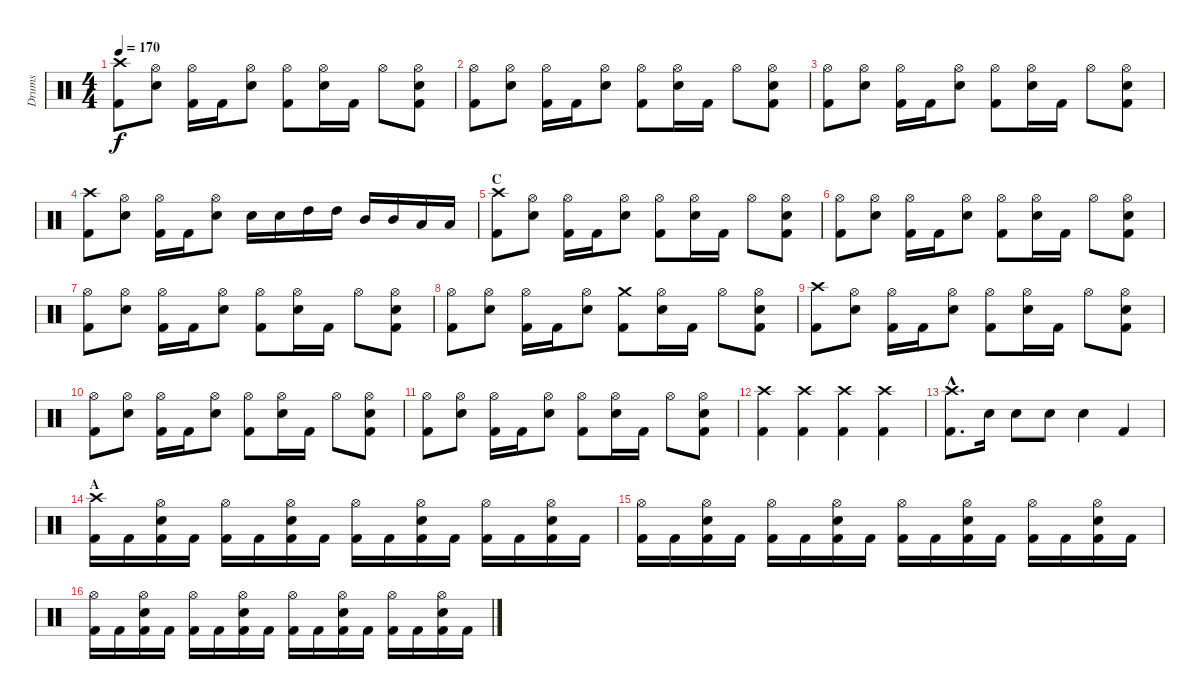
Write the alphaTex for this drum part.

\track ("Drums" "Drums") {instrument percussion}
\staff {score}
\articulation defaults
\ts (4 4)
\tempo 170
\clef neutral
\ks c
("Crash high (hit)" "Kick (hit) 2").8{dy f} ("Hi-Hat (open)" "Electric Snare (hit)").8 ("Hi-Hat (open)" "Kick (hit) 2").16 "Kick (hit) 2".16 ("Hi-Hat (open)" "Electric Snare (hit)").8 ("Hi-Hat (open)" "Kick (hit) 2").8 ("Hi-Hat (open)" "Electric Snare (hit)").16 "Kick (hit) 2".16 "Hi-Hat (open)".8 ("Hi-Hat (open)" "Electric Snare (hit)" "Kick (hit) 2").8 |
("Hi-Hat (open)" "Kick (hit) 2").8 ("Hi-Hat (open)" "Electric Snare (hit)").8 ("Hi-Hat (open)" "Kick (hit) 2").16 "Kick (hit) 2".16 ("Hi-Hat (open)" "Electric Snare (hit)").8 ("Hi-Hat (open)" "Kick (hit) 2").8 ("Hi-Hat (open)" "Electric Snare (hit)").16 "Kick (hit) 2".16 "Hi-Hat (open)".8 ("Hi-Hat (open)" "Electric Snare (hit)" "Kick (hit) 2").8 |
("Hi-Hat (open)" "Kick (hit) 2").8 ("Hi-Hat (open)" "Electric Snare (hit)").8 ("Hi-Hat (open)" "Kick (hit) 2").16 "Kick (hit) 2".16 ("Hi-Hat (open)" "Electric Snare (hit)").8 ("Hi-Hat (open)" "Kick (hit) 2").8 ("Hi-Hat (open)" "Electric Snare (hit)").16 "Kick (hit) 2".16 "Hi-Hat (open)".8 ("Hi-Hat (open)" "Electric Snare (hit)" "Kick (hit) 2").8 |
("Crash high (hit)" "Kick (hit) 2").8 ("Hi-Hat (open)" "Electric Snare (hit)").8 ("Hi-Hat (open)" "Kick (hit) 2").16 "Kick (hit) 2".16 ("Hi-Hat (open)" "Electric Snare (hit)").8 "Electric Snare (hit)".16 "Electric Snare (hit)".16 "High Tom (hit)".16 "High Tom (hit)".16 "Mid Tom (hit)".16 "Mid Tom (hit)".16 "Low Tom (hit)".16 "Low Tom (hit)".16 |
\section ("" "C")
("Crash high (hit)" "Kick (hit) 2").8 ("Hi-Hat (open)" "Electric Snare (hit)").8 ("Hi-Hat (open)" "Kick (hit) 2").16 "Kick (hit) 2".16 ("Hi-Hat (open)" "Electric Snare (hit)").8 ("Hi-Hat (open)" "Kick (hit) 2").8 ("Hi-Hat (open)" "Electric Snare (hit)").16 "Kick (hit) 2".16 "Hi-Hat (open)".8 ("Hi-Hat (open)" "Electric Snare (hit)" "Kick (hit) 2").8 |
("Hi-Hat (open)" "Kick (hit) 2").8 ("Hi-Hat (open)" "Electric Snare (hit)").8 ("Hi-Hat (open)" "Kick (hit) 2").16 "Kick (hit) 2".16 ("Hi-Hat (open)" "Electric Snare (hit)").8 ("Hi-Hat (open)" "Kick (hit) 2").8 ("Hi-Hat (open)" "Electric Snare (hit)").16 "Kick (hit) 2".16 "Hi-Hat (open)".8 ("Hi-Hat (open)" "Electric Snare (hit)" "Kick (hit) 2").8 |
("Hi-Hat (open)" "Kick (hit) 2").8 ("Hi-Hat (open)" "Electric Snare (hit)").8 ("Hi-Hat (open)" "Kick (hit) 2").16 "Kick (hit) 2".16 ("Hi-Hat (open)" "Electric Snare (hit)").8 ("Hi-Hat (open)" "Kick (hit) 2").8 ("Hi-Hat (open)" "Electric Snare (hit)").16 "Kick (hit) 2".16 "Hi-Hat (open)".8 ("Hi-Hat (open)" "Electric Snare (hit)" "Kick (hit) 2").8 |
("Hi-Hat (open)" "Kick (hit) 2").8 ("Hi-Hat (open)" "Electric Snare (hit)").8 ("Hi-Hat (open)" "Kick (hit) 2").16 "Kick (hit) 2".16 ("Hi-Hat (open)" "Electric Snare (hit)").8 ("Crash medium (hit)" "Kick (hit) 2").8 ("Hi-Hat (open)" "Electric Snare (hit)").16 "Kick (hit) 2".16 "Hi-Hat (open)".8 ("Hi-Hat (open)" "Electric Snare (hit)" "Kick (hit) 2").8 |
("Crash high (hit)" "Kick (hit) 2").8 ("Hi-Hat (open)" "Electric Snare (hit)").8 ("Hi-Hat (open)" "Kick (hit) 2").16 "Kick (hit) 2".16 ("Hi-Hat (open)" "Electric Snare (hit)").8 ("Hi-Hat (open)" "Kick (hit) 2").8 ("Hi-Hat (open)" "Electric Snare (hit)").16 "Kick (hit) 2".16 "Hi-Hat (open)".8 ("Hi-Hat (open)" "Electric Snare (hit)" "Kick (hit) 2").8 |
("Hi-Hat (open)" "Kick (hit) 2").8 ("Hi-Hat (open)" "Electric Snare (hit)").8 ("Hi-Hat (open)" "Kick (hit) 2").16 "Kick (hit) 2".16 ("Hi-Hat (open)" "Electric Snare (hit)").8 ("Hi-Hat (open)" "Kick (hit) 2").8 ("Hi-Hat (open)" "Electric Snare (hit)").16 "Kick (hit) 2".16 "Hi-Hat (open)".8 ("Hi-Hat (open)" "Electric Snare (hit)" "Kick (hit) 2").8 |
("Hi-Hat (open)" "Kick (hit) 2").8 ("Hi-Hat (open)" "Electric Snare (hit)").8 ("Hi-Hat (open)" "Kick (hit) 2").16 "Kick (hit) 2".16 ("Hi-Hat (open)" "Electric Snare (hit)").8 ("Hi-Hat (open)" "Kick (hit) 2").8 ("Hi-Hat (open)" "Electric Snare (hit)").16 "Kick (hit) 2".16 "Hi-Hat (open)".8 ("Hi-Hat (open)" "Electric Snare (hit)" "Kick (hit) 2").8 |
("Crash high (hit)" "Kick (hit) 2").4 ("Crash high (hit)" "Kick (hit) 2").4 ("Crash high (hit)" "Kick (hit) 2").4 ("Crash high (hit)" "Kick (hit) 2").4 |
("Crash high (hit)"{hac} "Kick (hit) 2"{hac}).8{d} "Electric Snare (hit)".16 "Electric Snare (hit)".8 "Electric Snare (hit)".8 "Electric Snare (hit)".4 "Kick (hit) 2".4 |
\section ("" "A")
("Crash high (hit)" "Kick (hit) 2").16 "Kick (hit) 2".16 ("Hi-Hat (open)" "Electric Snare (hit)" "Kick (hit) 2").16 "Kick (hit) 2".16 ("Hi-Hat (open)" "Kick (hit) 2").16 "Kick (hit) 2".16 ("Hi-Hat (open)" "Electric Snare (hit)" "Kick (hit) 2").16 "Kick (hit) 2".16 ("Hi-Hat (open)" "Kick (hit) 2").16 "Kick (hit) 2".16 ("Hi-Hat (open)" "Electric Snare (hit)" "Kick (hit) 2").16 "Kick (hit) 2".16 ("Hi-Hat (open)" "Kick (hit) 2").16 "Kick (hit) 2".16 ("Hi-Hat (open)" "Electric Snare (hit)" "Kick (hit) 2").16 "Kick (hit) 2".16 |
("Hi-Hat (open)" "Kick (hit) 2").16 "Kick (hit) 2".16 ("Hi-Hat (open)" "Electric Snare (hit)" "Kick (hit) 2").16 "Kick (hit) 2".16 ("Hi-Hat (open)" "Kick (hit) 2").16 "Kick (hit) 2".16 ("Hi-Hat (open)" "Electric Snare (hit)" "Kick (hit) 2").16 "Kick (hit) 2".16 ("Hi-Hat (open)" "Kick (hit) 2").16 "Kick (hit) 2".16 ("Hi-Hat (open)" "Electric Snare (hit)" "Kick (hit) 2").16 "Kick (hit) 2".16 ("Hi-Hat (open)" "Kick (hit) 2").16 "Kick (hit) 2".16 ("Hi-Hat (open)" "Electric Snare (hit)" "Kick (hit) 2").16 "Kick (hit) 2".16 |
("Hi-Hat (open)" "Kick (hit) 2").16 "Kick (hit) 2".16 ("Hi-Hat (open)" "Electric Snare (hit)" "Kick (hit) 2").16 "Kick (hit) 2".16 ("Hi-Hat (open)" "Kick (hit) 2").16 "Kick (hit) 2".16 ("Hi-Hat (open)" "Electric Snare (hit)" "Kick (hit) 2").16 "Kick (hit) 2".16 ("Hi-Hat (open)" "Kick (hit) 2").16 "Kick (hit) 2".16 ("Hi-Hat (open)" "Electric Snare (hit)" "Kick (hit) 2").16 "Kick (hit) 2".16 ("Hi-Hat (open)" "Kick (hit) 2").16 "Kick (hit) 2".16 ("Hi-Hat (open)" "Electric Snare (hit)" "Kick (hit) 2").16 "Kick (hit) 2".16
